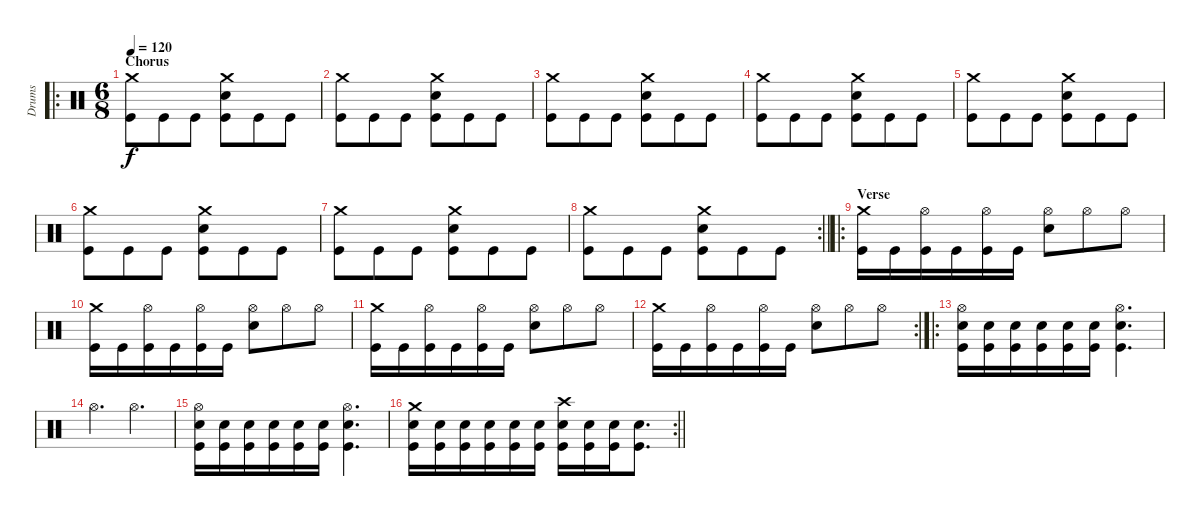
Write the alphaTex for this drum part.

\track ("Drums" "Drums") {instrument percussion}
\staff {score}
\articulation defaults
\ro
\ts (6 8)
\section ("" "Chorus")
\tempo 120
\clef neutral
\ks c
("Crash medium (hit)" "Kick (hit)").8{dy f} "Kick (hit)".8 "Kick (hit)".8 ("Crash medium (hit)" "Snare (hit) 2" "Kick (hit)").8 "Kick (hit)".8 "Kick (hit)".8 |
("Crash medium (hit)" "Kick (hit)").8 "Kick (hit)".8 "Kick (hit)".8 ("Crash medium (hit)" "Snare (hit) 2" "Kick (hit)").8 "Kick (hit)".8 "Kick (hit)".8 |
("Crash medium (hit)" "Kick (hit)").8 "Kick (hit)".8 "Kick (hit)".8 ("Crash medium (hit)" "Snare (hit) 2" "Kick (hit)").8 "Kick (hit)".8 "Kick (hit)".8 |
("Crash medium (hit)" "Kick (hit)").8 "Kick (hit)".8 "Kick (hit)".8 ("Crash medium (hit)" "Snare (hit) 2" "Kick (hit)").8 "Kick (hit)".8 "Kick (hit)".8 |
("Crash medium (hit)" "Kick (hit)").8 "Kick (hit)".8 "Kick (hit)".8 ("Crash medium (hit)" "Snare (hit) 2" "Kick (hit)").8 "Kick (hit)".8 "Kick (hit)".8 |
("Crash medium (hit)" "Kick (hit)").8 "Kick (hit)".8 "Kick (hit)".8 ("Crash medium (hit)" "Snare (hit) 2" "Kick (hit)").8 "Kick (hit)".8 "Kick (hit)".8 |
("Crash medium (hit)" "Kick (hit)").8 "Kick (hit)".8 "Kick (hit)".8 ("Crash medium (hit)" "Snare (hit) 2" "Kick (hit)").8 "Kick (hit)".8 "Kick (hit)".8 |
\rc 2
\barLineRight lightlight
("Crash medium (hit)" "Kick (hit)").8 "Kick (hit)".8 "Kick (hit)".8 ("Crash medium (hit)" "Snare (hit) 2" "Kick (hit)").8 "Kick (hit)".8 "Kick (hit)".8 |
\ro
\section ("" "Verse")
("Crash medium (hit)" "Kick (hit)").16 "Kick (hit)".16 ("Hi-Hat (open)" "Kick (hit)").16 "Kick (hit)".16 ("Hi-Hat (open)" "Kick (hit)").16 "Kick (hit)".16 ("Hi-Hat (open)" "Snare (hit) 2").8 "Hi-Hat (open)".8 "Hi-Hat (open)".8 |
("Crash medium (hit)" "Kick (hit)").16 "Kick (hit)".16 ("Hi-Hat (open)" "Kick (hit)").16 "Kick (hit)".16 ("Hi-Hat (open)" "Kick (hit)").16 "Kick (hit)".16 ("Hi-Hat (open)" "Snare (hit) 2").8 "Hi-Hat (open)".8 "Hi-Hat (open)".8 |
("Crash medium (hit)" "Kick (hit)").16 "Kick (hit)".16 ("Hi-Hat (open)" "Kick (hit)").16 "Kick (hit)".16 ("Hi-Hat (open)" "Kick (hit)").16 "Kick (hit)".16 ("Hi-Hat (open)" "Snare (hit) 2").8 "Hi-Hat (open)".8 "Hi-Hat (open)".8 |
\rc 2
("Crash medium (hit)" "Kick (hit)").16 "Kick (hit)".16 ("Hi-Hat (open)" "Kick (hit)").16 "Kick (hit)".16 ("Hi-Hat (open)" "Kick (hit)").16 "Kick (hit)".16 ("Hi-Hat (open)" "Snare (hit) 2").8 "Hi-Hat (open)".8 "Hi-Hat (open)".8 |
\ro
("Hi-Hat (open)" "Snare (hit) 2" "Kick (hit)").16 ("Snare (hit) 2" "Kick (hit)").16 ("Snare (hit) 2" "Kick (hit)").16 ("Snare (hit) 2" "Kick (hit)").16 ("Snare (hit) 2" "Kick (hit)").16 ("Snare (hit) 2" "Kick (hit)").16 ("Hi-Hat (open)" "Snare (hit) 2" "Kick (hit)").4{d} |
"Hi-Hat (open)".4{d} "Hi-Hat (open)".4{d} |
("Hi-Hat (open)" "Snare (hit) 2" "Kick (hit)").16 ("Snare (hit) 2" "Kick (hit)").16 ("Snare (hit) 2" "Kick (hit)").16 ("Snare (hit) 2" "Kick (hit)").16 ("Snare (hit) 2" "Kick (hit)").16 ("Snare (hit) 2" "Kick (hit)").16 ("Hi-Hat (open)" "Snare (hit) 2" "Kick (hit)").4{d} |
\rc 2
\barLineRight lightlight
("Crash medium (hit)" "Snare (hit) 2" "Kick (hit)").16 ("Snare (hit) 2" "Kick (hit)").16 ("Snare (hit) 2" "Kick (hit)").16 ("Snare (hit) 2" "Kick (hit)").16 ("Snare (hit) 2" "Kick (hit)").16 ("Snare (hit) 2" "Kick (hit)").16 ("Crash high (hit)" "Snare (hit) 2" "Kick (hit)").16 ("Snare (hit) 2" "Kick (hit)").16 ("Snare (hit) 2" "Kick (hit)").16 ("Snare (hit) 2" "Kick (hit)").8{d}
